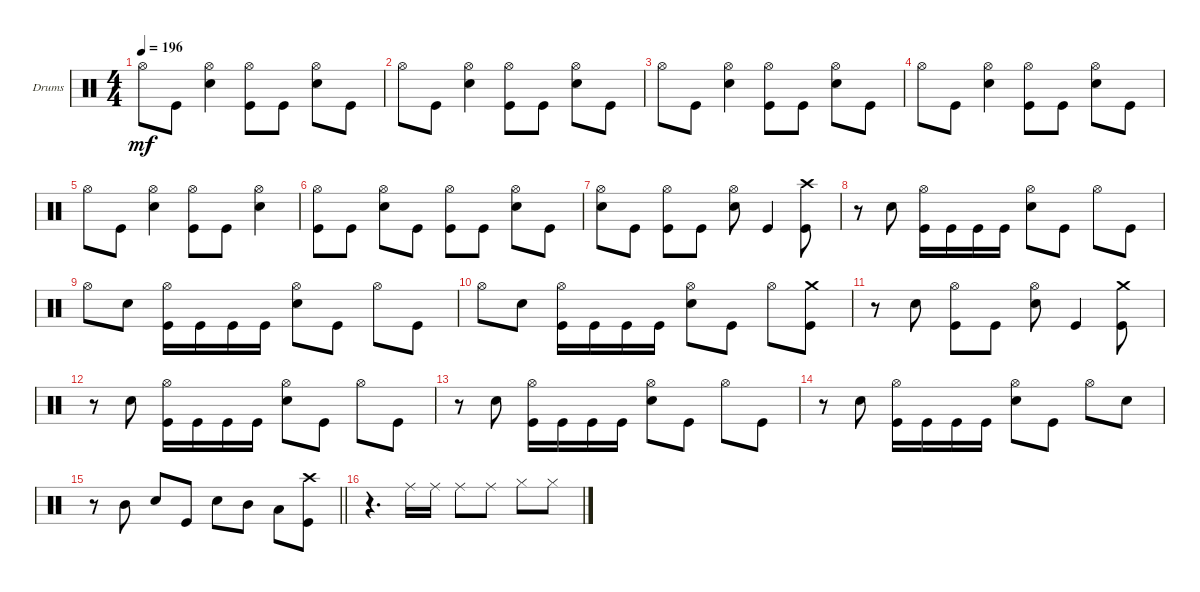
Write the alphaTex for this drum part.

\defaultSystemsLayout 4
\bracketExtendMode groupsimilarinstruments
\firstSystemTrackNameOrientation horizontal
\otherSystemsTrackNameOrientation horizontal
\track ("Drumkit" "Drums") {instrument percussion}
\staff {score}
\articulation defaults
\ts (4 4)
\tempo 196
\clef neutral
\scale
0.333333
\ks c "Hi-Hat (open)".8{dy mf} "Kick (hit)".8
("Snare (hit) 2" "Hi-Hat (open)").4 ("Kick (hit)" "Hi-Hat (open)").8 "Kick (hit)".8 ("Snare (hit) 2" "Hi-Hat (open)").8 "Kick (hit)".8 |
\scale
0.333333 "Hi-Hat (open)".8 "Kick (hit)".8 ("Snare (hit) 2" "Hi-Hat (open)").4 ("Kick (hit)" "Hi-Hat (open)").8 "Kick (hit)".8 ("Snare (hit) 2" "Hi-Hat (open)").8 "Kick (hit)".8 |
\scale
0.333333 "Hi-Hat (open)".8 "Kick (hit)".8 ("Snare (hit) 2" "Hi-Hat (open)").4 ("Kick (hit)" "Hi-Hat (open)").8 "Kick (hit)".8 ("Snare (hit) 2" "Hi-Hat (open)").8 "Kick (hit)".8 |
\scale
0.333333 "Hi-Hat (open)".8 "Kick (hit)".8 ("Snare (hit) 2" "Hi-Hat (open)").4 ("Kick (hit)" "Hi-Hat (open)").8 "Kick (hit)".8 ("Snare (hit) 2" "Hi-Hat (open)").8 "Kick (hit)".8 |
\scale
0.333333 "Hi-Hat (open)".8 "Kick (hit)".8 ("Snare (hit) 2" "Hi-Hat (open)").4 ("Kick (hit)" "Hi-Hat (open)").8 "Kick (hit)".8 ("Snare (hit) 2" "Hi-Hat (open)").4 |
\scale
0.333333 ("Kick (hit)" "Hi-Hat (open)").8 "Kick (hit)".8 ("Snare (hit) 2" "Hi-Hat (open)").8 "Kick (hit)".8 ("Kick (hit)" "Hi-Hat (open)").8 "Kick (hit)".8 ("Snare (hit) 2" "Hi-Hat (open)").8 "Kick (hit)".8 |
\scale
0.333333 ("Snare (hit) 2" "Hi-Hat (open)").8 "Kick (hit)".8 ("Kick (hit)" "Hi-Hat (open)").8 "Kick (hit)".8 ("Snare (hit) 2" "Hi-Hat (open)").8 "Kick (hit)".4 ("Kick (hit)" "Crash high (hit)").8 |
\scale
0.333333 r.8 "Snare (hit) 2".8 ("Kick (hit)" "Hi-Hat (open)").16 "Kick (hit)".16 "Kick (hit)".16 "Kick (hit)".16 ("Snare (hit) 2" "Hi-Hat (open)").8 "Kick (hit)".8 "Hi-Hat (open)".8 "Kick (hit)".8 |
\scale
0.333333 "Hi-Hat (open)".8 "Snare (hit) 2".8 ("Kick (hit)" "Hi-Hat (open)").16 "Kick (hit)".16 "Kick (hit)".16 "Kick (hit)".16 ("Snare (hit) 2" "Hi-Hat (open)").8 "Kick (hit)".8 "Hi-Hat (open)".8 "Kick (hit)".8 |
\scale
0.333333 "Hi-Hat (open)".8 "Snare (hit) 2".8 ("Kick (hit)" "Hi-Hat (open)").16 "Kick (hit)".16 "Kick (hit)".16 "Kick (hit)".16 ("Snare (hit) 2" "Hi-Hat (open)").8 "Kick (hit)".8 "Hi-Hat (open)".8 ("Kick (hit)" "Crash medium (hit)").8 |
\scale
0.333333 r.8 "Snare (hit) 2".8 ("Kick (hit)" "Hi-Hat (open)").8 "Kick (hit)".8 ("Snare (hit) 2" "Hi-Hat (open)").8 "Kick (hit)".4 ("Kick (hit)" "Crash medium (hit)").8 |
\scale
0.333333 r.8 "Snare (hit) 2".8 ("Kick (hit)" "Hi-Hat (open)").16 "Kick (hit)".16 "Kick (hit)".16 "Kick (hit)".16 ("Snare (hit) 2" "Hi-Hat (open)").8 "Kick (hit)".8 "Hi-Hat (open)".8 "Kick (hit)".8 |
\scale
0.333333 r.8 "Snare (hit) 2".8 ("Kick (hit)" "Hi-Hat (open)").16 "Kick (hit)".16 "Kick (hit)".16 "Kick (hit)".16 ("Snare (hit) 2" "Hi-Hat (open)").8 "Kick (hit)".8 "Hi-Hat (open)".8 "Kick (hit)".8 |
\scale
0.333333 r.8 "Snare (hit) 2".8 ("Kick (hit)" "Hi-Hat (open)").16 "Kick (hit)".16 "Kick (hit)".16 "Kick (hit)".16 ("Snare (hit) 2" "Hi-Hat (open)").8 "Kick (hit)".8 "Hi-Hat (open)".8 "Snare (hit) 2".8 |
\scale
0.333333
\barLineRight lightlight
r.8 "Mid Tom (hit)".8 "Snare (hit) 2".8 "Kick (hit)".8 "Snare (hit) 2".8 "Mid Tom (hit)".8 "Low Tom (hit)".8 ("Crash high (hit)" "Kick (hit)").8 |
\scale
0.333333 r.4{d} "Ride (middle)".16 "Ride (middle)".16 "Ride (middle)".8 "Ride (middle)".8 "Hi-Hat (closed)".8 "Hi-Hat (closed)".8
